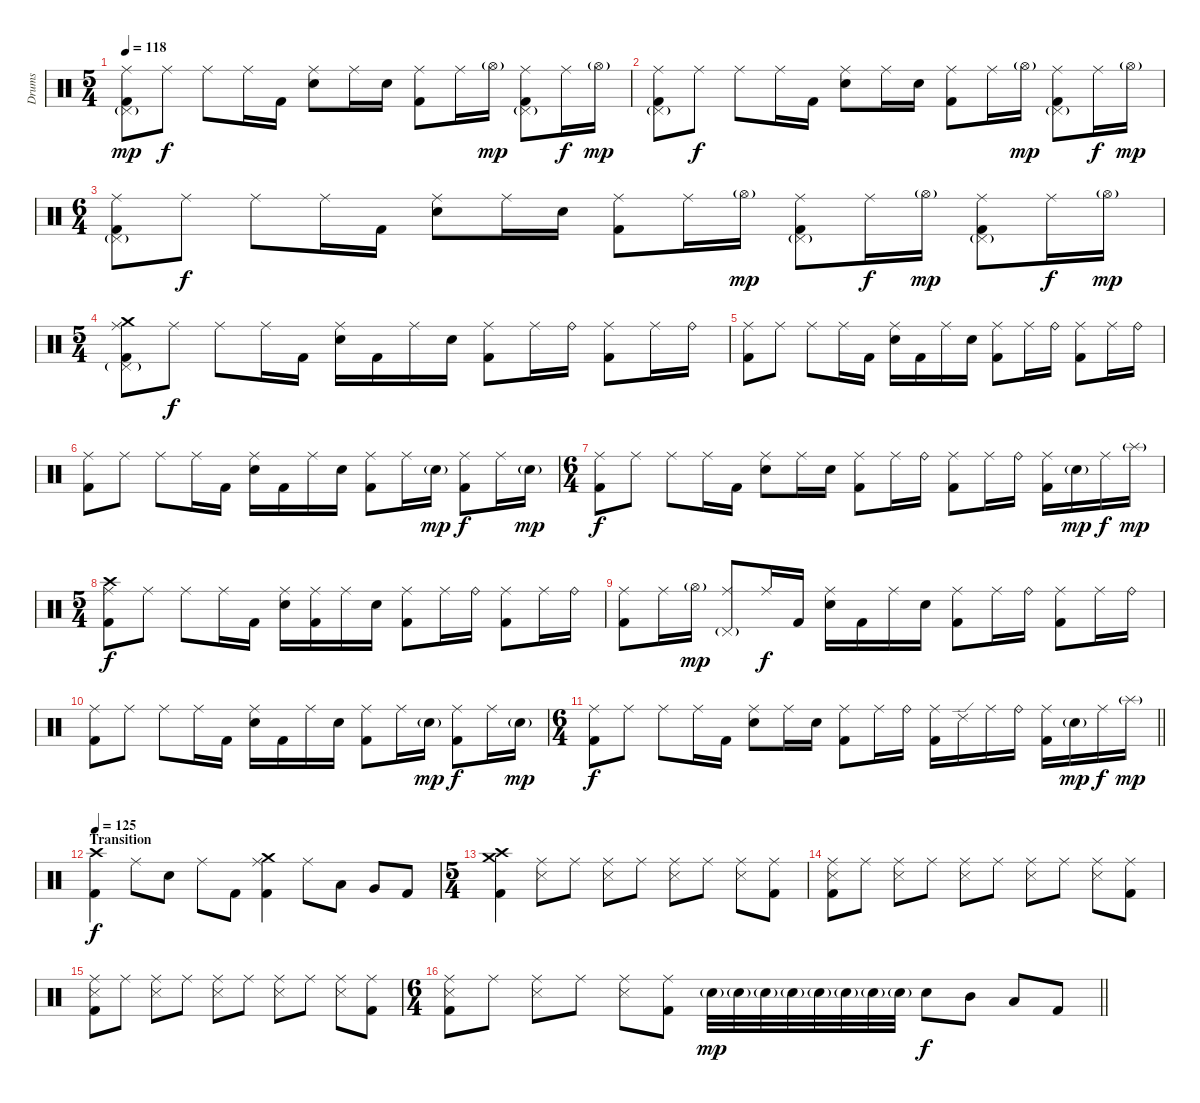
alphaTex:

\track ("Drums" "Drums") {instrument percussion}
\staff {score}
\articulation defaults
\ts (5 4)
\tempo 118
\clef neutral
\ks c
("Ride (middle)" "Pedal Hi-Hat (hit)"{g} "Kick (hit) 2").8{dy mp} "Ride (middle)".8{dy f} "Ride (middle)".8 "Ride (middle)".16 "Kick (hit) 2".16 ("Ride (middle)" "Electric Snare (hit)").8 "Ride (middle)".16 "Electric Snare (hit)".16 ("Ride (middle)" "Kick (hit) 2").8 "Ride (middle)".16 "Hi-Hat (open)"{g}.16{dy mp} ("Ride (middle)" "Pedal Hi-Hat (hit)"{g} "Kick (hit) 2").8 "Ride (middle)".16{dy f} "Hi-Hat (open)"{g}.16{dy mp} |
("Ride (middle)" "Pedal Hi-Hat (hit)"{g} "Kick (hit) 2").8 "Ride (middle)".8{dy f} "Ride (middle)".8 "Ride (middle)".16 "Kick (hit) 2".16 ("Ride (middle)" "Electric Snare (hit)").8 "Ride (middle)".16 "Electric Snare (hit)".16 ("Ride (middle)" "Kick (hit) 2").8 "Ride (middle)".16 "Hi-Hat (open)"{g}.16{dy mp} ("Ride (middle)" "Pedal Hi-Hat (hit)"{g} "Kick (hit) 2").8 "Ride (middle)".16{dy f} "Hi-Hat (open)"{g}.16{dy mp} |
\ts (6 4)
("Ride (middle)" "Pedal Hi-Hat (hit)"{g} "Kick (hit) 2").8 "Ride (middle)".8{dy f} "Ride (middle)".8 "Ride (middle)".16 "Kick (hit) 2".16 ("Ride (middle)" "Electric Snare (hit)").8 "Ride (middle)".16 "Electric Snare (hit)".16 ("Ride (middle)" "Kick (hit) 2").8 "Ride (middle)".16 "Hi-Hat (open)"{g}.16{dy mp} ("Ride (middle)" "Pedal Hi-Hat (hit)"{g} "Kick (hit) 2").8 "Ride (middle)".16{dy f} "Hi-Hat (open)"{g}.16{dy mp} ("Ride (middle)" "Pedal Hi-Hat (hit)"{g} "Kick (hit) 2").8 "Ride (middle)".16{dy f} "Hi-Hat (open)"{g}.16{dy mp} |
\ts (5 4)
("Crash medium (hit)" "Ride (middle)" "Pedal Hi-Hat (hit)"{g} "Kick (hit) 2").8 "Ride (middle)".8{dy f} "Ride (middle)".8 "Ride (middle)".16 "Kick (hit) 2".16 ("Ride (middle)" "Electric Snare (hit)").16 "Kick (hit) 2".16 "Ride (middle)".16 "Electric Snare (hit)".16 ("Ride (middle)" "Kick (hit) 2").8 "Ride (middle)".16 "Ride (bell)".16 ("Ride (middle)" "Kick (hit) 2").8 "Ride (middle)".16 "Ride (bell)".16 |
("Ride (middle)" "Kick (hit) 2").8 "Ride (middle)".8 "Ride (middle)".8 "Ride (middle)".16 "Kick (hit) 2".16 ("Ride (middle)" "Electric Snare (hit)").16 "Kick (hit) 2".16 "Ride (middle)".16 "Electric Snare (hit)".16 ("Ride (middle)" "Kick (hit) 2").8 "Ride (middle)".16 "Ride (bell)".16 ("Ride (middle)" "Kick (hit) 2").8 "Ride (middle)".16 "Ride (bell)".16 |
("Ride (middle)" "Kick (hit) 2").8 "Ride (middle)".8 "Ride (middle)".8 "Ride (middle)".16 "Kick (hit) 2".16 ("Ride (middle)" "Electric Snare (hit)").16 "Kick (hit) 2".16 "Ride (middle)".16 "Electric Snare (hit)".16 ("Ride (middle)" "Kick (hit) 2").8 "Ride (middle)".16 "Electric Snare (hit)"{g}.16{dy mp} ("Ride (middle)" "Kick (hit) 2").8{dy f} "Ride (middle)".16 "Electric Snare (hit)"{g}.16{dy mp} |
\ts (6 4)
("Ride (middle)" "Kick (hit) 2").8{dy f} "Ride (middle)".8 "Ride (middle)".8 "Ride (middle)".16 "Kick (hit) 2".16 ("Ride (middle)" "Electric Snare (hit)").8 "Ride (middle)".16 "Electric Snare (hit)".16 ("Ride (middle)" "Kick (hit) 2").8 "Ride (middle)".16 "Ride (bell)".16 ("Ride (middle)" "Kick (hit) 2").8 "Ride (middle)".16 "Ride (bell)".16 ("Ride (middle)" "Kick (hit) 2").16 "Electric Snare (hit)"{g}.16{dy mp} "Ride (middle)".16{dy f} "Splash (hit)"{g}.16{dy mp} |
\ts (5 4)
("Crash high (hit)" "Ride (middle)" "Kick (hit) 2").8{dy f} "Ride (middle)".8 "Ride (middle)".8 "Ride (middle)".16 "Kick (hit) 2".16 ("Ride (middle)" "Electric Snare (hit)").16 ("Ride (middle)" "Kick (hit) 2").16 "Ride (middle)".16 "Electric Snare (hit)".16 ("Ride (middle)" "Kick (hit) 2").8 "Ride (middle)".16 "Ride (bell)".16 ("Ride (middle)" "Kick (hit) 2").8 "Ride (middle)".16 "Ride (bell)".16 |
("Ride (middle)" "Kick (hit) 2").8 "Ride (middle)".16 "Hi-Hat (open)"{g}.16{dy mp} ("Ride (middle)" "Pedal Hi-Hat (hit)"{g}).8 "Ride (middle)".16{dy f} "Kick (hit) 2".16 ("Ride (middle)" "Electric Snare (hit)").16 "Kick (hit) 2".16 "Ride (middle)".16 "Electric Snare (hit)".16 ("Ride (middle)" "Kick (hit) 2").8 "Ride (middle)".16 "Ride (bell)".16 ("Ride (middle)" "Kick (hit) 2").8 "Ride (middle)".16 "Ride (bell)".16 |
("Ride (middle)" "Kick (hit) 2").8 "Ride (middle)".8 "Ride (middle)".8 "Ride (middle)".16 "Kick (hit) 2".16 ("Ride (middle)" "Electric Snare (hit)").16 "Kick (hit) 2".16 "Ride (middle)".16 "Electric Snare (hit)".16 ("Ride (middle)" "Kick (hit) 2").8 "Ride (middle)".16 "Electric Snare (hit)"{g}.16{dy mp} ("Ride (middle)" "Kick (hit) 2").8{dy f} "Ride (middle)".16 "Electric Snare (hit)"{g}.16{dy mp} |
\ts (6 4)
\barLineRight lightlight
("Ride (middle)" "Kick (hit) 2").8{dy f} "Ride (middle)".8 "Ride (middle)".8 "Ride (middle)".16 "Kick (hit) 2".16 ("Ride (middle)" "Electric Snare (hit)").8 "Ride (middle)".16 "Electric Snare (hit)".16 ("Ride (middle)" "Kick (hit) 2").8 "Ride (middle)".16 "Ride (bell)".16 ("Ride (middle)" "Kick (hit) 2").16 "Ride (edge) 2".16 "Ride (middle)".16 "Ride (bell)".16 ("Ride (middle)" "Kick (hit) 2").16 "Electric Snare (hit)"{g}.16{dy mp} "Ride (middle)".16{dy f} "Splash (hit)"{g}.16{dy mp} |
\section ("" "Transition")
\tempo 125
("Crash high (hit)" "Kick (hit) 2").4{dy f} "Ride (middle)".8 "Electric Snare (hit)".8 "Ride (middle)".8 "Kick (hit) 2".8 ("Crash medium (hit)" "Ride (middle)" "Kick (hit) 2").4 "Ride (middle)".8 "Low Tom (hit)".8 "Very Low Tom (hit)".8 "Kick (hit) 2".8 |
\ts (5 4)
("Crash medium (hit)" "Crash high (hit)" "Kick (hit) 2").4 ("Ride (middle)" "Snare (side stick) 3").8 "Ride (middle)".8 ("Ride (middle)" "Snare (side stick) 3").8 "Ride (middle)".8 ("Ride (middle)" "Snare (side stick) 3").8 "Ride (middle)".8 ("Ride (middle)" "Snare (side stick) 3").8 ("Ride (middle)" "Kick (hit) 2").8 |
("Ride (middle)" "Snare (side stick) 3" "Kick (hit) 2").8 "Ride (middle)".8 ("Ride (middle)" "Snare (side stick) 3").8 "Ride (middle)".8 ("Ride (middle)" "Snare (side stick) 3").8 "Ride (middle)".8 ("Ride (middle)" "Snare (side stick) 3").8 "Ride (middle)".8 ("Ride (middle)" "Snare (side stick) 3").8 ("Ride (middle)" "Kick (hit) 2").8 |
("Ride (middle)" "Snare (side stick) 3" "Kick (hit) 2").8 "Ride (middle)".8 ("Ride (middle)" "Snare (side stick) 3").8 "Ride (middle)".8 ("Ride (middle)" "Snare (side stick) 3").8 "Ride (middle)".8 ("Ride (middle)" "Snare (side stick) 3").8 "Ride (middle)".8 ("Ride (middle)" "Snare (side stick) 3").8 ("Ride (middle)" "Kick (hit) 2").8 |
\ts (6 4)
\barLineRight lightlight
("Ride (middle)" "Snare (side stick) 3" "Kick (hit) 2").8 "Ride (middle)".8 ("Ride (middle)" "Snare (side stick) 3").8 "Ride (middle)".8 ("Ride (middle)" "Snare (side stick) 3").8 ("Ride (middle)" "Kick (hit) 2").8 "Electric Snare (hit)"{g}.32{dy mp} "Electric Snare (hit)"{g}.32 "Electric Snare (hit)"{g}.32 "Electric Snare (hit)"{g}.32 "Electric Snare (hit)"{g}.32 "Electric Snare (hit)"{g}.32 "Electric Snare (hit)"{g}.32 "Electric Snare (hit)"{g}.32 "Electric Snare (hit)".8{dy f} "Mid Tom (hit)".8 "Low Tom (hit)".8 "Kick (hit) 2".8
